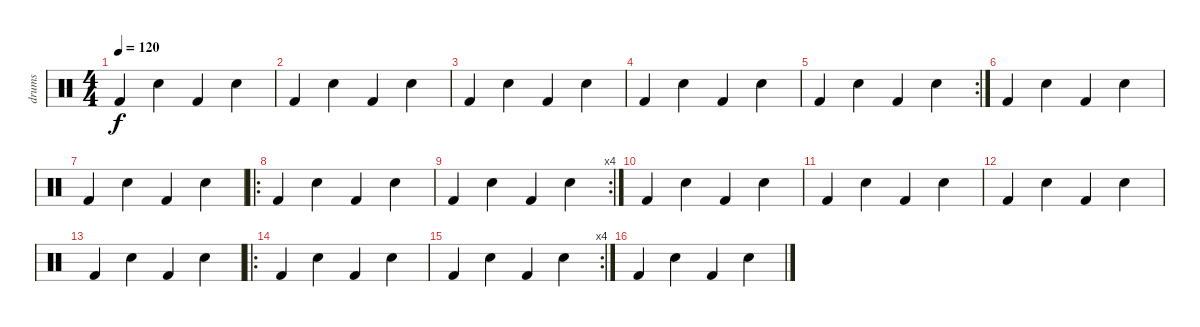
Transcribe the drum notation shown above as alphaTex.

\track ("drums" "drums") {instrument percussion}
\staff {score}
\articulation defaults
\ts (4 4)
\tempo 120
\clef neutral
\ks c "Kick (hit) 2".4{dy f} "Snare (hit) 2".4 "Kick (hit) 2".4 "Snare (hit) 2".4
|
"Kick (hit) 2".4 "Snare (hit) 2".4 "Kick (hit) 2".4 "Snare (hit) 2".4 |
"Kick (hit) 2".4 "Snare (hit) 2".4 "Kick (hit) 2".4 "Snare (hit) 2".4 |
"Kick (hit) 2".4 "Snare (hit) 2".4 "Kick (hit) 2".4 "Snare (hit) 2".4 |
\rc 2 "Kick (hit) 2".4 "Snare (hit) 2".4 "Kick (hit) 2".4 "Snare (hit) 2".4
|
"Kick (hit) 2".4 "Snare (hit) 2".4 "Kick (hit) 2".4 "Snare (hit) 2".4 |
"Kick (hit) 2".4 "Snare (hit) 2".4 "Kick (hit) 2".4 "Snare (hit) 2".4 |
\ro "Kick (hit) 2".4 "Snare (hit) 2".4 "Kick (hit) 2".4 "Snare (hit) 2".4
|
\rc 4 "Kick (hit) 2".4 "Snare (hit) 2".4 "Kick (hit) 2".4 "Snare (hit) 2".4
|
"Kick (hit) 2".4 "Snare (hit) 2".4 "Kick (hit) 2".4 "Snare (hit) 2".4 |
"Kick (hit) 2".4 "Snare (hit) 2".4 "Kick (hit) 2".4 "Snare (hit) 2".4 |
"Kick (hit) 2".4 "Snare (hit) 2".4 "Kick (hit) 2".4 "Snare (hit) 2".4 |
"Kick (hit) 2".4 "Snare (hit) 2".4 "Kick (hit) 2".4 "Snare (hit) 2".4 |
\ro "Kick (hit) 2".4 "Snare (hit) 2".4 "Kick (hit) 2".4 "Snare (hit) 2".4
|
\rc 4 "Kick (hit) 2".4 "Snare (hit) 2".4 "Kick (hit) 2".4 "Snare (hit) 2".4
|
"Kick (hit) 2".4 "Snare (hit) 2".4 "Kick (hit) 2".4 "Snare (hit) 2".4
